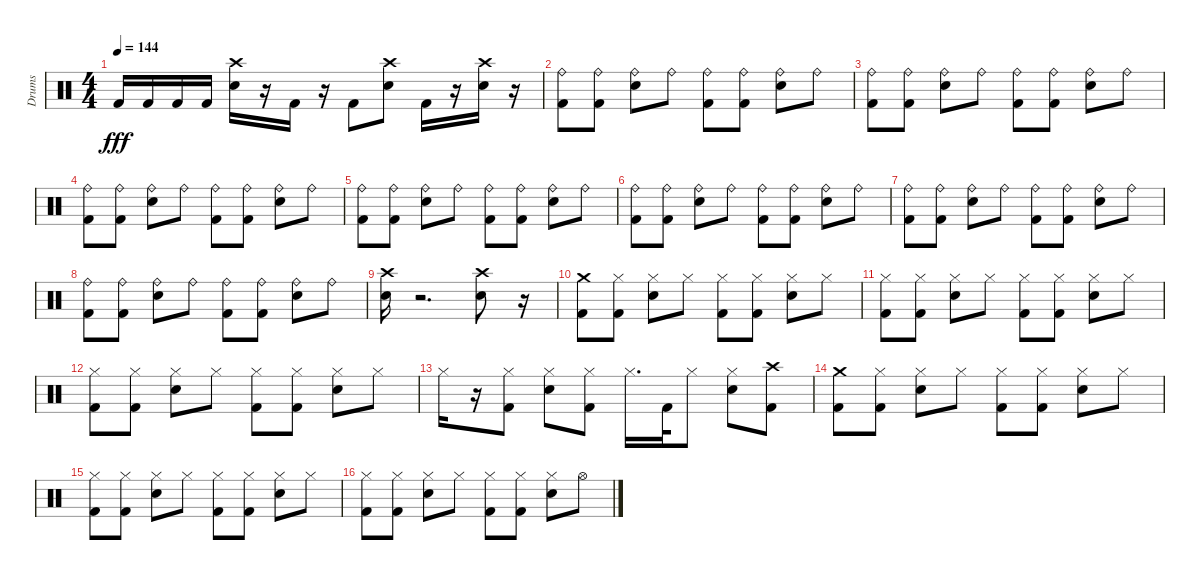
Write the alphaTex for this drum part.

\track ("Drums" "Drums") {instrument percussion}
\staff {score}
\articulation defaults
\ts (4 4)
\tempo 144
\clef neutral
\ks c "Kick (hit) 2".16{dy fff} "Kick (hit) 2".16 "Kick (hit) 2".16 "Kick (hit) 2".16
("Snare (hit) 2" "Crash high (hit)").16 r.16 "Kick (hit) 2".16 r.16 "Kick (hit) 2".8 ("Snare (hit) 2" "Crash high (hit)").8 "Kick (hit) 2".16 r.16 ("Snare (hit) 2" "Crash high (hit)").16 r.16 |
("Kick (hit) 2" "Ride (bell)").8 ("Kick (hit) 2" "Ride (bell)").8 ("Snare (hit) 2" "Ride (bell)").8 "Ride (bell)".8 ("Kick (hit) 2" "Ride (bell)").8 ("Kick (hit) 2" "Ride (bell)").8 ("Snare (hit) 2" "Ride (bell)").8 "Ride (bell)".8 |
("Ride (bell)" "Kick (hit) 2").8 ("Kick (hit) 2" "Ride (bell)").8 ("Snare (hit) 2" "Ride (bell)").8 "Ride (bell)".8 ("Kick (hit) 2" "Ride (bell)").8 ("Kick (hit) 2" "Ride (bell)").8 ("Snare (hit) 2" "Ride (bell)").8 "Ride (bell)".8 |
("Ride (bell)" "Kick (hit) 2").8 ("Kick (hit) 2" "Ride (bell)").8 ("Snare (hit) 2" "Ride (bell)").8 "Ride (bell)".8 ("Kick (hit) 2" "Ride (bell)").8 ("Kick (hit) 2" "Ride (bell)").8 ("Snare (hit) 2" "Ride (bell)").8 "Ride (bell)".8 |
("Ride (bell)" "Kick (hit) 2").8 ("Kick (hit) 2" "Ride (bell)").8 ("Snare (hit) 2" "Ride (bell)").8 "Ride (bell)".8 ("Kick (hit) 2" "Ride (bell)").8 ("Kick (hit) 2" "Ride (bell)").8 ("Snare (hit) 2" "Ride (bell)").8 "Ride (bell)".8 |
("Ride (bell)" "Kick (hit) 2").8 ("Kick (hit) 2" "Ride (bell)").8 ("Snare (hit) 2" "Ride (bell)").8 "Ride (bell)".8 ("Kick (hit) 2" "Ride (bell)").8 ("Kick (hit) 2" "Ride (bell)").8 ("Snare (hit) 2" "Ride (bell)").8 "Ride (bell)".8 |
("Kick (hit) 2" "Ride (bell)").8 ("Kick (hit) 2" "Ride (bell)").8 ("Snare (hit) 2" "Ride (bell)").8 "Ride (bell)".8 ("Kick (hit) 2" "Ride (bell)").8 ("Kick (hit) 2" "Ride (bell)").8 ("Snare (hit) 2" "Ride (bell)").8 "Ride (bell)".8 |
("Kick (hit) 2" "Ride (bell)").8 ("Kick (hit) 2" "Ride (bell)").8 ("Snare (hit) 2" "Ride (bell)").8 "Ride (bell)".8 ("Kick (hit) 2" "Ride (bell)").8 ("Kick (hit) 2" "Ride (bell)").8 ("Snare (hit) 2" "Ride (bell)").8 "Ride (bell)".8 |
("Snare (hit) 2" "Crash high (hit)").16 r.2{d} ("Crash high (hit)" "Snare (hit) 2").8 r.16 |
("Kick (hit) 2" "Crash medium (hit)").8 ("Hi-Hat (closed)" "Kick (hit) 2").8 ("Snare (hit) 2" "Hi-Hat (closed)").8 "Hi-Hat (closed)".8 ("Kick (hit) 2" "Hi-Hat (closed)").8 ("Hi-Hat (closed)" "Kick (hit) 2").8 ("Snare (hit) 2" "Hi-Hat (closed)").8 "Hi-Hat (closed)".8 |
("Kick (hit) 2" "Hi-Hat (closed)").8 ("Hi-Hat (closed)" "Kick (hit) 2").8 ("Snare (hit) 2" "Hi-Hat (closed)").8 "Hi-Hat (closed)".8 ("Kick (hit) 2" "Hi-Hat (closed)").8 ("Hi-Hat (closed)" "Kick (hit) 2").8 ("Snare (hit) 2" "Hi-Hat (closed)").8 "Hi-Hat (closed)".8 |
("Kick (hit) 2" "Hi-Hat (closed)").8 ("Kick (hit) 2" "Hi-Hat (closed)").8 ("Snare (hit) 2" "Hi-Hat (closed)").8 "Hi-Hat (closed)".8 ("Kick (hit) 2" "Hi-Hat (closed)").8 ("Kick (hit) 2" "Hi-Hat (closed)").8 ("Snare (hit) 2" "Hi-Hat (closed)").8 "Hi-Hat (closed)".8 |
"Hi-Hat (closed)".16 r.16 ("Kick (hit) 2" "Hi-Hat (closed)").8 ("Snare (hit) 2" "Hi-Hat (closed)").8 ("Hi-Hat (closed)" "Kick (hit) 2").8 "Hi-Hat (closed)".16{d} "Kick (hit) 2".32 "Hi-Hat (closed)".8 ("Snare (hit) 2" "Hi-Hat (closed)").8 ("Kick (hit) 2" "Crash high (hit)").8 |
("Kick (hit) 2" "Crash medium (hit)").8 ("Kick (hit) 2" "Hi-Hat (closed)").8 ("Snare (hit) 2" "Hi-Hat (closed)").8 "Hi-Hat (closed)".8 ("Kick (hit) 2" "Hi-Hat (closed)").8 ("Kick (hit) 2" "Hi-Hat (closed)").8 ("Snare (hit) 2" "Hi-Hat (closed)").8 "Hi-Hat (closed)".8 |
("Kick (hit) 2" "Hi-Hat (closed)").8 ("Kick (hit) 2" "Hi-Hat (closed)").8 ("Snare (hit) 2" "Hi-Hat (closed)").8 "Hi-Hat (closed)".8 ("Kick (hit) 2" "Hi-Hat (closed)").8 ("Kick (hit) 2" "Hi-Hat (closed)").8 ("Snare (hit) 2" "Hi-Hat (closed)").8 "Hi-Hat (closed)".8 |
("Hi-Hat (closed)" "Kick (hit) 2").8 ("Kick (hit) 2" "Hi-Hat (closed)").8 ("Snare (hit) 2" "Hi-Hat (closed)").8 "Hi-Hat (closed)".8 ("Kick (hit) 2" "Hi-Hat (closed)").8 ("Kick (hit) 2" "Hi-Hat (closed)").8 ("Snare (hit) 2" "Hi-Hat (closed)").8 "Hi-Hat (open)".8
